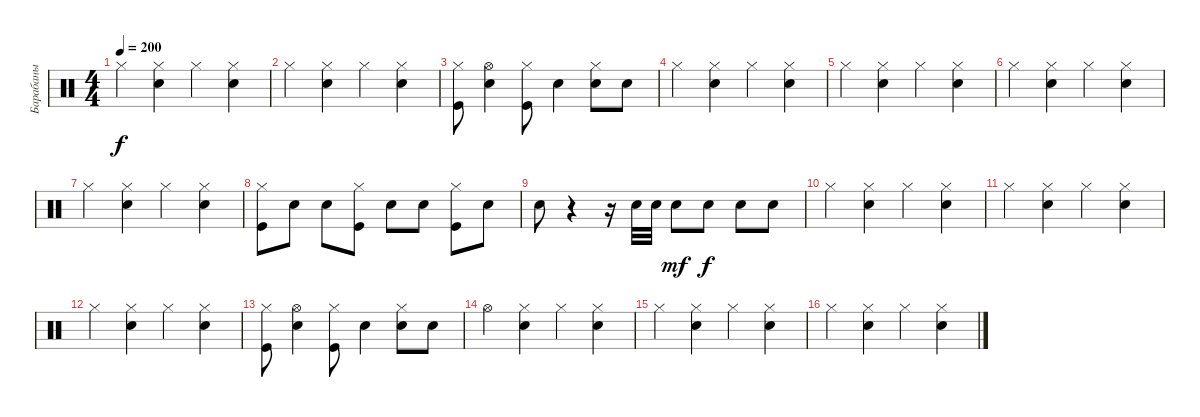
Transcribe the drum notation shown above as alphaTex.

\track ("Барабаны" "Барабаны") {instrument percussion}
\staff {score}
\articulation defaults
\ts (4 4)
\tempo 200
\clef neutral
\ks c "Hi-Hat (closed)".4{dy f}
("Snare (hit) 2" "Hi-Hat (closed)").4 "Hi-Hat (closed)".4 ("Snare (hit) 2" "Hi-Hat (closed)").4 |
"Hi-Hat (closed)".4 ("Snare (hit) 2" "Hi-Hat (closed)").4 "Hi-Hat (closed)".4 ("Snare (hit) 2" "Hi-Hat (closed)").4 |
("Kick (hit)" "Hi-Hat (closed)").8 ("Hi-Hat (open)" "Electric Snare (hit)").4 ("Kick (hit)" "Hi-Hat (closed)").8 "Electric Snare (hit)".4 ("Electric Snare (hit)" "Hi-Hat (closed)").8 "Electric Snare (hit)".8 |
"Hi-Hat (closed)".4 ("Snare (hit) 2" "Hi-Hat (closed)").4 "Hi-Hat (closed)".4 ("Snare (hit) 2" "Hi-Hat (closed)").4 |
"Hi-Hat (closed)".4 ("Snare (hit) 2" "Hi-Hat (closed)").4 "Hi-Hat (closed)".4 ("Snare (hit) 2" "Hi-Hat (closed)").4 |
"Hi-Hat (closed)".4 ("Snare (hit) 2" "Hi-Hat (closed)").4 "Hi-Hat (closed)".4 ("Snare (hit) 2" "Hi-Hat (closed)").4 |
"Hi-Hat (closed)".4 ("Snare (hit) 2" "Hi-Hat (closed)").4 "Hi-Hat (closed)".4 ("Snare (hit) 2" "Hi-Hat (closed)").4 |
("Hi-Hat (closed)" "Kick (hit)").8 "Electric Snare (hit)".8 "Electric Snare (hit)".8 ("Hi-Hat (closed)" "Kick (hit)").8 "Electric Snare (hit)".8 "Electric Snare (hit)".8 ("Hi-Hat (closed)" "Kick (hit)").8 "Electric Snare (hit)".8 |
"Electric Snare (hit)".8 r.4 r.16 "Electric Snare (hit)".32 "Electric Snare (hit)".32 "Electric Snare (hit)".8{dy mf} "Electric Snare (hit)".8{dy f} "Electric Snare (hit)".8 "Electric Snare (hit)".8 |
"Hi-Hat (closed)".4 ("Snare (hit) 2" "Hi-Hat (closed)").4 "Hi-Hat (closed)".4 ("Snare (hit) 2" "Hi-Hat (closed)").4 |
"Hi-Hat (closed)".4 ("Snare (hit) 2" "Hi-Hat (closed)").4 "Hi-Hat (closed)".4 ("Snare (hit) 2" "Hi-Hat (closed)").4 |
"Hi-Hat (closed)".4 ("Snare (hit) 2" "Hi-Hat (closed)").4 "Hi-Hat (closed)".4 ("Snare (hit) 2" "Hi-Hat (closed)").4 |
("Kick (hit)" "Hi-Hat (closed)").8 ("Hi-Hat (open)" "Electric Snare (hit)").4 ("Kick (hit)" "Hi-Hat (closed)").8 "Electric Snare (hit)".4 ("Electric Snare (hit)" "Hi-Hat (closed)").8 "Electric Snare (hit)".8 |
"Hi-Hat (open)".4 ("Snare (hit) 2" "Hi-Hat (closed)").4 "Hi-Hat (closed)".4 ("Snare (hit) 2" "Hi-Hat (closed)").4 |
"Hi-Hat (closed)".4 ("Snare (hit) 2" "Hi-Hat (closed)").4 "Hi-Hat (closed)".4 ("Snare (hit) 2" "Hi-Hat (closed)").4 |
"Hi-Hat (closed)".4 ("Snare (hit) 2" "Hi-Hat (closed)").4 "Hi-Hat (closed)".4 ("Snare (hit) 2" "Hi-Hat (closed)").4
